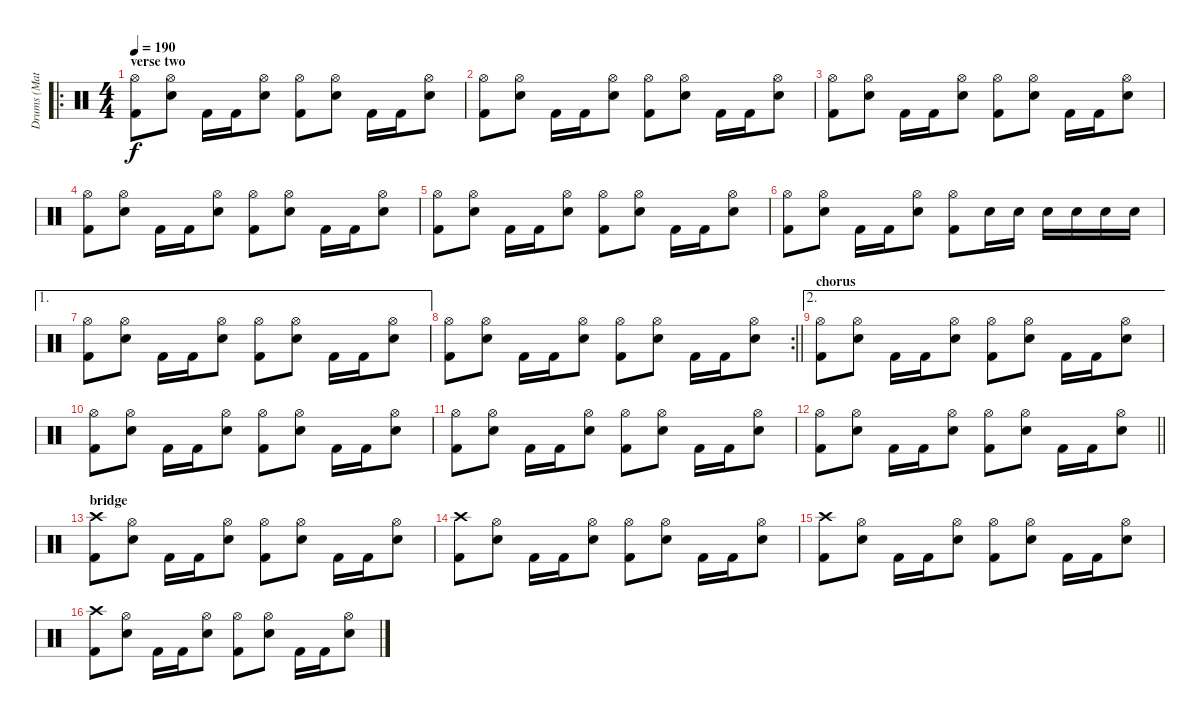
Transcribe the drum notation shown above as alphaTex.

\track ("Drums (Matt/Chris)" "Drums (Mat") {instrument percussion}
\staff {score}
\articulation defaults
\ro
\ts (4 4)
\section ("" "verse two")
\tempo 190
\clef neutral
\ks c
("Hi-Hat (open)" "Kick (hit) 2").8{dy f} ("Hi-Hat (open)" "Snare (hit) 2").8 "Kick (hit) 2".16 "Kick (hit) 2".16 ("Hi-Hat (open)" "Snare (hit) 2").8 ("Hi-Hat (open)" "Kick (hit) 2").8 ("Hi-Hat (open)" "Snare (hit) 2").8 "Kick (hit) 2".16 "Kick (hit) 2".16 ("Hi-Hat (open)" "Snare (hit) 2").8 |
("Hi-Hat (open)" "Kick (hit) 2").8 ("Hi-Hat (open)" "Snare (hit) 2").8 "Kick (hit) 2".16 "Kick (hit) 2".16 ("Hi-Hat (open)" "Snare (hit) 2").8 ("Hi-Hat (open)" "Kick (hit) 2").8 ("Hi-Hat (open)" "Snare (hit) 2").8 "Kick (hit) 2".16 "Kick (hit) 2".16 ("Hi-Hat (open)" "Snare (hit) 2").8 |
("Hi-Hat (open)" "Kick (hit) 2").8 ("Hi-Hat (open)" "Snare (hit) 2").8 "Kick (hit) 2".16 "Kick (hit) 2".16 ("Hi-Hat (open)" "Snare (hit) 2").8 ("Hi-Hat (open)" "Kick (hit) 2").8 ("Hi-Hat (open)" "Snare (hit) 2").8 "Kick (hit) 2".16 "Kick (hit) 2".16 ("Hi-Hat (open)" "Snare (hit) 2").8 |
("Hi-Hat (open)" "Kick (hit) 2").8 ("Hi-Hat (open)" "Snare (hit) 2").8 "Kick (hit) 2".16 "Kick (hit) 2".16 ("Hi-Hat (open)" "Snare (hit) 2").8 ("Hi-Hat (open)" "Kick (hit) 2").8 ("Hi-Hat (open)" "Snare (hit) 2").8 "Kick (hit) 2".16 "Kick (hit) 2".16 ("Hi-Hat (open)" "Snare (hit) 2").8 |
("Hi-Hat (open)" "Kick (hit) 2").8 ("Hi-Hat (open)" "Snare (hit) 2").8 "Kick (hit) 2".16 "Kick (hit) 2".16 ("Hi-Hat (open)" "Snare (hit) 2").8 ("Hi-Hat (open)" "Kick (hit) 2").8 ("Hi-Hat (open)" "Snare (hit) 2").8 "Kick (hit) 2".16 "Kick (hit) 2".16 ("Hi-Hat (open)" "Snare (hit) 2").8 |
("Hi-Hat (open)" "Kick (hit) 2").8 ("Hi-Hat (open)" "Snare (hit) 2").8 "Kick (hit) 2".16 "Kick (hit) 2".16 ("Hi-Hat (open)" "Snare (hit) 2").8 ("Hi-Hat (open)" "Kick (hit) 2").8 "Snare (hit) 2".16 "Snare (hit) 2".16 "Snare (hit) 2".16 "Snare (hit) 2".16 "Snare (hit) 2".16 "Snare (hit) 2".16 |
\ae 1
("Hi-Hat (open)" "Kick (hit) 2").8 ("Hi-Hat (open)" "Snare (hit) 2").8 "Kick (hit) 2".16 "Kick (hit) 2".16 ("Hi-Hat (open)" "Snare (hit) 2").8 ("Hi-Hat (open)" "Kick (hit) 2").8 ("Hi-Hat (open)" "Snare (hit) 2").8 "Kick (hit) 2".16 "Kick (hit) 2".16 ("Hi-Hat (open)" "Snare (hit) 2").8 |
\rc 2
\barLineRight lightlight
("Hi-Hat (open)" "Kick (hit) 2").8 ("Hi-Hat (open)" "Snare (hit) 2").8 "Kick (hit) 2".16 "Kick (hit) 2".16 ("Hi-Hat (open)" "Snare (hit) 2").8 ("Hi-Hat (open)" "Kick (hit) 2").8 ("Hi-Hat (open)" "Snare (hit) 2").8 "Kick (hit) 2".16 "Kick (hit) 2".16 ("Hi-Hat (open)" "Snare (hit) 2").8 |
\ae 2
\section ("" "chorus")
("Hi-Hat (open)" "Kick (hit) 2").8 ("Hi-Hat (open)" "Snare (hit) 2").8 "Kick (hit) 2".16 "Kick (hit) 2".16 ("Hi-Hat (open)" "Snare (hit) 2").8 ("Hi-Hat (open)" "Kick (hit) 2").8 ("Hi-Hat (open)" "Snare (hit) 2").8 "Kick (hit) 2".16 "Kick (hit) 2".16 ("Hi-Hat (open)" "Snare (hit) 2").8 |
("Hi-Hat (open)" "Kick (hit) 2").8 ("Hi-Hat (open)" "Snare (hit) 2").8 "Kick (hit) 2".16 "Kick (hit) 2".16 ("Hi-Hat (open)" "Snare (hit) 2").8 ("Hi-Hat (open)" "Kick (hit) 2").8 ("Hi-Hat (open)" "Snare (hit) 2").8 "Kick (hit) 2".16 "Kick (hit) 2".16 ("Hi-Hat (open)" "Snare (hit) 2").8 |
("Hi-Hat (open)" "Kick (hit) 2").8 ("Hi-Hat (open)" "Snare (hit) 2").8 "Kick (hit) 2".16 "Kick (hit) 2".16 ("Hi-Hat (open)" "Snare (hit) 2").8 ("Hi-Hat (open)" "Kick (hit) 2").8 ("Hi-Hat (open)" "Snare (hit) 2").8 "Kick (hit) 2".16 "Kick (hit) 2".16 ("Hi-Hat (open)" "Snare (hit) 2").8 |
\barLineRight lightlight
("Hi-Hat (open)" "Kick (hit) 2").8 ("Hi-Hat (open)" "Snare (hit) 2").8 "Kick (hit) 2".16 "Kick (hit) 2".16 ("Hi-Hat (open)" "Snare (hit) 2").8 ("Hi-Hat (open)" "Kick (hit) 2").8 ("Hi-Hat (open)" "Snare (hit) 2").8 "Kick (hit) 2".16 "Kick (hit) 2".16 ("Hi-Hat (open)" "Snare (hit) 2").8 |
\section ("" "bridge")
("Crash high (hit)" "Kick (hit) 2").8 ("Hi-Hat (open)" "Snare (hit) 2").8 "Kick (hit) 2".16 "Kick (hit) 2".16 ("Hi-Hat (open)" "Snare (hit) 2").8 ("Hi-Hat (open)" "Kick (hit) 2").8 ("Hi-Hat (open)" "Snare (hit) 2").8 "Kick (hit) 2".16 "Kick (hit) 2".16 ("Hi-Hat (open)" "Snare (hit) 2").8 |
("Crash high (hit)" "Kick (hit) 2").8 ("Hi-Hat (open)" "Snare (hit) 2").8 "Kick (hit) 2".16 "Kick (hit) 2".16 ("Hi-Hat (open)" "Snare (hit) 2").8 ("Hi-Hat (open)" "Kick (hit) 2").8 ("Hi-Hat (open)" "Snare (hit) 2").8 "Kick (hit) 2".16 "Kick (hit) 2".16 ("Hi-Hat (open)" "Snare (hit) 2").8 |
("Crash high (hit)" "Kick (hit) 2").8 ("Hi-Hat (open)" "Snare (hit) 2").8 "Kick (hit) 2".16 "Kick (hit) 2".16 ("Hi-Hat (open)" "Snare (hit) 2").8 ("Hi-Hat (open)" "Kick (hit) 2").8 ("Hi-Hat (open)" "Snare (hit) 2").8 "Kick (hit) 2".16 "Kick (hit) 2".16 ("Hi-Hat (open)" "Snare (hit) 2").8 |
("Crash high (hit)" "Kick (hit) 2").8 ("Hi-Hat (open)" "Snare (hit) 2").8 "Kick (hit) 2".16 "Kick (hit) 2".16 ("Hi-Hat (open)" "Snare (hit) 2").8 ("Hi-Hat (open)" "Kick (hit) 2").8 ("Hi-Hat (open)" "Snare (hit) 2").8 "Kick (hit) 2".16 "Kick (hit) 2".16 ("Hi-Hat (open)" "Snare (hit) 2").8
